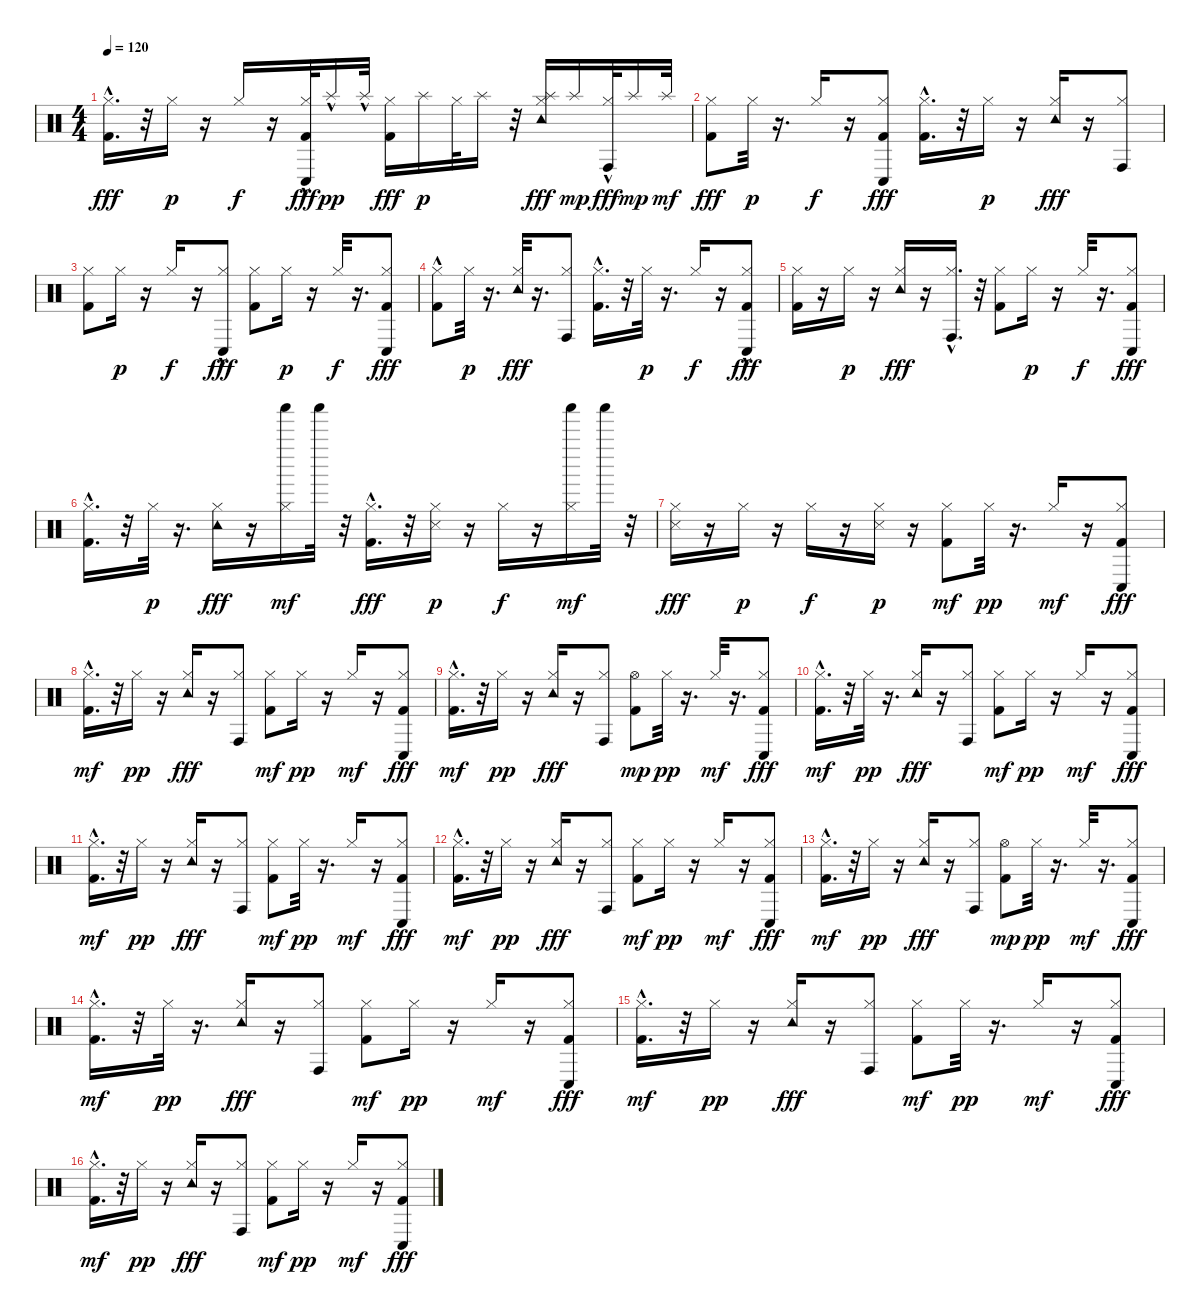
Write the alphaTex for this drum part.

\track "" {instrument percussion}
\staff {score}
\articulation defaults
\ts (4 4)
\tempo 120
\clef neutral
\ks c
("Kick (hit) 2"{hac} "Hi-Hat (closed)").16{d dy fff} r.32 "Hi-Hat (closed)".16{dy p} r.16 "Hi-Hat (closed)".16{dy f} r.16 ("Kick (hit) 2" "Hi-Hat (closed)" "Conga low (hit)"{hac}).32{dy fff} "Splash (hit)"{hac}.16{dy pp} "Splash (hit)"{hac}.32 ("Kick (hit) 2" "Hi-Hat (closed)").16{dy fff} "Splash (hit)".16{dy p} "Hi-Hat (closed)".32 "Splash (hit)".16 r.32 ("Splash (hit)" "Hi-Hat (closed)" "Tambourine (hit)").16{dy fff} "Splash (hit)".16{dy mp} ("Hi-Hat (closed)" "Conga high (hit)"{hac}).32{dy fff} "Splash (hit)".16{dy mp} "Splash (hit)".32{dy mf} |
("Kick (hit) 2" "Hi-Hat (closed)").8{dy fff} "Hi-Hat (closed)".32{dy p} r.16{d} "Hi-Hat (closed)".16{dy f} r.16 ("Kick (hit) 2" "Hi-Hat (closed)" "Conga low (hit)").8{dy fff} ("Kick (hit) 2"{hac} "Hi-Hat (closed)").16{d} r.32 "Hi-Hat (closed)".16{dy p} r.16 ("Hi-Hat (closed)" "Tambourine (hit)").16{dy fff} r.16 ("Hi-Hat (closed)" "Conga high (hit)").8 |
("Kick (hit) 2" "Hi-Hat (closed)").8 "Hi-Hat (closed)".16{dy p} r.16 "Hi-Hat (closed)".16{dy f} r.16 ("Hi-Hat (closed)" "Conga low (hit)"{hac}).8{dy fff} ("Kick (hit) 2" "Hi-Hat (closed)").8 "Hi-Hat (closed)".16{dy p} r.16 "Hi-Hat (closed)".32{dy f} r.16{d} ("Kick (hit) 2" "Hi-Hat (closed)" "Conga low (hit)").8{dy fff} |
("Kick (hit) 2"{hac} "Hi-Hat (closed)").8 "Hi-Hat (closed)".32{dy p} r.16{d} ("Hi-Hat (closed)" "Tambourine (hit)").32{dy fff} r.16{d} ("Hi-Hat (closed)" "Conga high (hit)").8 ("Kick (hit) 2"{hac} "Hi-Hat (closed)").16{d} r.32 "Hi-Hat (closed)".32{dy p} r.16{d} "Hi-Hat (closed)".16{dy f} r.16 ("Kick (hit) 2" "Hi-Hat (closed)" "Conga low (hit)"{hac}).8{dy fff} |
("Kick (hit) 2" "Hi-Hat (closed)").16 r.16 "Hi-Hat (closed)".16{dy p} r.16 ("Hi-Hat (closed)" "Tambourine (hit)").16{dy fff} r.16 ("Hi-Hat (closed)" "Conga high (hit)"{hac}).16{d} r.32 ("Kick (hit) 2" "Hi-Hat (closed)").8 "Hi-Hat (closed)".16{dy p} r.16 "Hi-Hat (closed)".32{dy f} r.16{d} ("Kick (hit) 2" "Hi-Hat (closed)" "Conga low (hit)").8{dy fff} |
("Kick (hit) 2"{hac} "Hi-Hat (closed)").16{d} r.32 "Hi-Hat (closed)".32{dy p} r.16{d} ("Hi-Hat (closed)" "Tambourine (hit)").16{dy fff} r.16 ("Hi-Hat (closed)" "Shaker (hit)").16{dy mf} "Shaker (hit)".32 r.32 ("Kick (hit) 2"{hac} "Hi-Hat (closed)").16{d dy fff} r.32 ("Snare (side stick) 3" "Hi-Hat (closed)").16{dy p} r.16 "Hi-Hat (closed)".16{dy f} r.16 ("Hi-Hat (closed)" "Shaker (hit)").16{dy mf} "Shaker (hit)".32 r.32 |
("Snare (side stick) 3" "Hi-Hat (closed)").16{dy fff} r.16 "Hi-Hat (closed)".16{dy p} r.16 "Hi-Hat (closed)".16{dy f} r.16 ("Snare (side stick) 3" "Hi-Hat (closed)").16{dy p} r.16 ("Kick (hit) 2" "Hi-Hat (closed)").8{dy mf} "Hi-Hat (closed)".32{dy pp} r.16{d} "Hi-Hat (closed)".16{dy mf} r.16 ("Kick (hit) 2" "Hi-Hat (closed)" "Conga low (hit)").8{dy fff} |
("Kick (hit) 2"{hac} "Hi-Hat (closed)").16{d dy mf} r.32 "Hi-Hat (closed)".16{dy pp} r.16 ("Hi-Hat (closed)" "Tambourine (hit)").16{dy fff} r.16 ("Hi-Hat (closed)" "Conga high (hit)").8 ("Kick (hit) 2" "Hi-Hat (closed)").8{dy mf} "Hi-Hat (closed)".16{dy pp} r.16 "Hi-Hat (closed)".16{dy mf} r.16 ("Kick (hit) 2" "Hi-Hat (closed)" "Conga low (hit)").8{dy fff} |
("Kick (hit) 2"{hac} "Hi-Hat (closed)").16{d dy mf} r.32 "Hi-Hat (closed)".16{dy pp} r.16 ("Hi-Hat (closed)" "Tambourine (hit)").16{dy fff} r.16 ("Hi-Hat (closed)" "Conga high (hit)").8 ("Kick (hit) 2" "Hi-Hat (open)").8{dy mp} "Hi-Hat (closed)".32{dy pp} r.16{d} "Hi-Hat (closed)".32{dy mf} r.16{d} ("Kick (hit) 2" "Hi-Hat (closed)" "Conga low (hit)").8{dy fff} |
("Kick (hit) 2"{hac} "Hi-Hat (closed)").16{d dy mf} r.32 "Hi-Hat (closed)".32{dy pp} r.16{d} ("Hi-Hat (closed)" "Tambourine (hit)").16{dy fff} r.16 ("Hi-Hat (closed)" "Conga high (hit)").8 ("Kick (hit) 2" "Hi-Hat (closed)").8{dy mf} "Hi-Hat (closed)".16{dy pp} r.16 "Hi-Hat (closed)".16{dy mf} r.16 ("Kick (hit) 2" "Hi-Hat (closed)" "Conga low (hit)").8{dy fff} |
("Kick (hit) 2"{hac} "Hi-Hat (closed)").16{d dy mf} r.32 "Hi-Hat (closed)".16{dy pp} r.16 ("Hi-Hat (closed)" "Tambourine (hit)").16{dy fff} r.16 ("Hi-Hat (closed)" "Conga high (hit)").8 ("Kick (hit) 2" "Hi-Hat (closed)").8{dy mf} "Hi-Hat (closed)".32{dy pp} r.16{d} "Hi-Hat (closed)".16{dy mf} r.16 ("Kick (hit) 2" "Hi-Hat (closed)" "Conga low (hit)").8{dy fff} |
("Kick (hit) 2"{hac} "Hi-Hat (closed)").16{d dy mf} r.32 "Hi-Hat (closed)".16{dy pp} r.16 ("Hi-Hat (closed)" "Tambourine (hit)").16{dy fff} r.16 ("Hi-Hat (closed)" "Conga high (hit)").8 ("Kick (hit) 2" "Hi-Hat (closed)").8{dy mf} "Hi-Hat (closed)".16{dy pp} r.16 "Hi-Hat (closed)".16{dy mf} r.16 ("Kick (hit) 2" "Hi-Hat (closed)" "Conga low (hit)").8{dy fff} |
("Kick (hit) 2"{hac} "Hi-Hat (closed)").16{d dy mf} r.32 "Hi-Hat (closed)".16{dy pp} r.16 ("Hi-Hat (closed)" "Tambourine (hit)").16{dy fff} r.16 ("Hi-Hat (closed)" "Conga high (hit)").8 ("Kick (hit) 2" "Hi-Hat (open)").8{dy mp} "Hi-Hat (closed)".32{dy pp} r.16{d} "Hi-Hat (closed)".32{dy mf} r.16{d} ("Kick (hit) 2" "Hi-Hat (closed)" "Conga low (hit)").8{dy fff} |
("Kick (hit) 2"{hac} "Hi-Hat (closed)").16{d dy mf} r.32 "Hi-Hat (closed)".32{dy pp} r.16{d} ("Hi-Hat (closed)" "Tambourine (hit)").16{dy fff} r.16 ("Hi-Hat (closed)" "Conga high (hit)").8 ("Kick (hit) 2" "Hi-Hat (closed)").8{dy mf} "Hi-Hat (closed)".16{dy pp} r.16 "Hi-Hat (closed)".16{dy mf} r.16 ("Kick (hit) 2" "Hi-Hat (closed)" "Conga low (hit)").8{dy fff} |
("Kick (hit) 2"{hac} "Hi-Hat (closed)").16{d dy mf} r.32 "Hi-Hat (closed)".16{dy pp} r.16 ("Hi-Hat (closed)" "Tambourine (hit)").16{dy fff} r.16 ("Hi-Hat (closed)" "Conga high (hit)").8 ("Kick (hit) 2" "Hi-Hat (closed)").8{dy mf} "Hi-Hat (closed)".32{dy pp} r.16{d} "Hi-Hat (closed)".16{dy mf} r.16 ("Kick (hit) 2" "Hi-Hat (closed)" "Conga low (hit)").8{dy fff} |
("Kick (hit) 2"{hac} "Hi-Hat (closed)").16{d dy mf} r.32 "Hi-Hat (closed)".16{dy pp} r.16 ("Hi-Hat (closed)" "Tambourine (hit)").16{dy fff} r.16 ("Hi-Hat (closed)" "Conga high (hit)").8 ("Kick (hit) 2" "Hi-Hat (closed)").8{dy mf} "Hi-Hat (closed)".16{dy pp} r.16 "Hi-Hat (closed)".16{dy mf} r.16 ("Kick (hit) 2" "Hi-Hat (closed)" "Conga low (hit)").8{dy fff}
